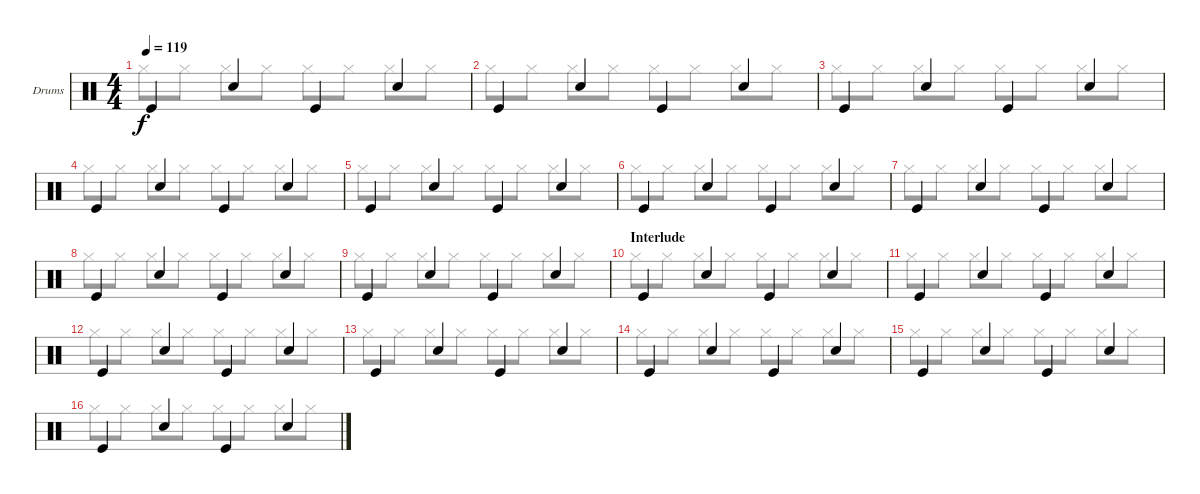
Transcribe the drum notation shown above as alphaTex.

\defaultSystemsLayout 4
\bracketExtendMode groupsimilarinstruments
\firstSystemTrackNameOrientation horizontal
\otherSystemsTrackNameOrientation horizontal
\track ("Drumkit" "Drums") {instrument percussion}
\staff {score}
\articulation defaults
\voice
\ts (4 4)
\tempo 119
\clef neutral
\ks c "Kick (hit)".4{dy f} "Snare (hit) 2".4 "Kick (hit)".4 "Snare (hit) 2".4
|
"Kick (hit)".4 "Snare (hit) 2".4 "Kick (hit)".4 "Snare (hit) 2".4 |
"Kick (hit)".4 "Snare (hit) 2".4 "Kick (hit)".4 "Snare (hit) 2".4 |
"Kick (hit)".4 "Snare (hit) 2".4 "Kick (hit)".4 "Snare (hit) 2".4 |
"Kick (hit)".4 "Snare (hit) 2".4 "Kick (hit)".4 "Snare (hit) 2".4 |
"Kick (hit)".4 "Snare (hit) 2".4 "Kick (hit)".4 "Snare (hit) 2".4 |
"Kick (hit)".4 "Snare (hit) 2".4 "Kick (hit)".4 "Snare (hit) 2".4 |
"Kick (hit)".4 "Snare (hit) 2".4 "Kick (hit)".4 "Snare (hit) 2".4 |
"Kick (hit)".4 "Snare (hit) 2".4 "Kick (hit)".4 "Snare (hit) 2".4 |
\section ("" "Interlude")
\scale
0.302177 "Kick (hit)".4 "Snare (hit) 2".4 "Kick (hit)".4 "Snare (hit) 2".4 |
\scale
0.231622 "Kick (hit)".4 "Snare (hit) 2".4 "Kick (hit)".4 "Snare (hit) 2".4 |
\scale
0.23877 "Kick (hit)".4 "Snare (hit) 2".4 "Kick (hit)".4 "Snare (hit) 2".4 |
\scale
0.226766 "Kick (hit)".4 "Snare (hit) 2".4 "Kick (hit)".4 "Snare (hit) 2".4 |
"Kick (hit)".4 "Snare (hit) 2".4 "Kick (hit)".4 "Snare (hit) 2".4 |
"Kick (hit)".4 "Snare (hit) 2".4 "Kick (hit)".4 "Snare (hit) 2".4 |
"Kick (hit)".4 "Snare (hit) 2".4 "Kick (hit)".4 "Snare (hit) 2".4
\voice
\clef neutral
\ottava regular
\simile none
\ks c "Hi-Hat (closed)".8{dy f} "Hi-Hat (closed)".8 "Hi-Hat (closed)".8 "Hi-Hat (closed)".8 "Hi-Hat (closed)".8 "Hi-Hat (closed)".8 "Hi-Hat (closed)".8 "Hi-Hat (closed)".8
|
"Hi-Hat (closed)".8 "Hi-Hat (closed)".8 "Hi-Hat (closed)".8 "Hi-Hat (closed)".8 "Hi-Hat (closed)".8 "Hi-Hat (closed)".8 "Hi-Hat (closed)".8 "Hi-Hat (closed)".8 |
"Hi-Hat (closed)".8 "Hi-Hat (closed)".8 "Hi-Hat (closed)".8 "Hi-Hat (closed)".8 "Hi-Hat (closed)".8 "Hi-Hat (closed)".8 "Hi-Hat (closed)".8 "Hi-Hat (closed)".8 |
"Hi-Hat (closed)".8 "Hi-Hat (closed)".8 "Hi-Hat (closed)".8 "Hi-Hat (closed)".8 "Hi-Hat (closed)".8 "Hi-Hat (closed)".8 "Hi-Hat (closed)".8 "Hi-Hat (closed)".8 |
"Hi-Hat (closed)".8 "Hi-Hat (closed)".8 "Hi-Hat (closed)".8 "Hi-Hat (closed)".8 "Hi-Hat (closed)".8 "Hi-Hat (closed)".8 "Hi-Hat (closed)".8 "Hi-Hat (closed)".8 |
"Hi-Hat (closed)".8 "Hi-Hat (closed)".8 "Hi-Hat (closed)".8 "Hi-Hat (closed)".8 "Hi-Hat (closed)".8 "Hi-Hat (closed)".8 "Hi-Hat (closed)".8 "Hi-Hat (closed)".8 |
"Hi-Hat (closed)".8 "Hi-Hat (closed)".8 "Hi-Hat (closed)".8 "Hi-Hat (closed)".8 "Hi-Hat (closed)".8 "Hi-Hat (closed)".8 "Hi-Hat (closed)".8 "Hi-Hat (closed)".8 |
"Hi-Hat (closed)".8 "Hi-Hat (closed)".8 "Hi-Hat (closed)".8 "Hi-Hat (closed)".8 "Hi-Hat (closed)".8 "Hi-Hat (closed)".8 "Hi-Hat (closed)".8 "Hi-Hat (closed)".8 |
"Hi-Hat (closed)".8 "Hi-Hat (closed)".8 "Hi-Hat (closed)".8 "Hi-Hat (closed)".8 "Hi-Hat (closed)".8 "Hi-Hat (closed)".8 "Hi-Hat (closed)".8 "Hi-Hat (closed)".8 |
"Hi-Hat (closed)".8 "Hi-Hat (closed)".8 "Hi-Hat (closed)".8 "Hi-Hat (closed)".8 "Hi-Hat (closed)".8 "Hi-Hat (closed)".8 "Hi-Hat (closed)".8 "Hi-Hat (closed)".8 |
"Hi-Hat (closed)".8 "Hi-Hat (closed)".8 "Hi-Hat (closed)".8 "Hi-Hat (closed)".8 "Hi-Hat (closed)".8 "Hi-Hat (closed)".8 "Hi-Hat (closed)".8 "Hi-Hat (closed)".8 |
"Hi-Hat (closed)".8 "Hi-Hat (closed)".8 "Hi-Hat (closed)".8 "Hi-Hat (closed)".8 "Hi-Hat (closed)".8 "Hi-Hat (closed)".8 "Hi-Hat (closed)".8 "Hi-Hat (closed)".8 |
"Hi-Hat (closed)".8 "Hi-Hat (closed)".8 "Hi-Hat (closed)".8 "Hi-Hat (closed)".8 "Hi-Hat (closed)".8 "Hi-Hat (closed)".8 "Hi-Hat (closed)".8 "Hi-Hat (closed)".8 |
"Hi-Hat (closed)".8 "Hi-Hat (closed)".8 "Hi-Hat (closed)".8 "Hi-Hat (closed)".8 "Hi-Hat (closed)".8 "Hi-Hat (closed)".8 "Hi-Hat (closed)".8 "Hi-Hat (closed)".8 |
"Hi-Hat (closed)".8 "Hi-Hat (closed)".8 "Hi-Hat (closed)".8 "Hi-Hat (closed)".8 "Hi-Hat (closed)".8 "Hi-Hat (closed)".8 "Hi-Hat (closed)".8 "Hi-Hat (closed)".8 |
"Hi-Hat (closed)".8 "Hi-Hat (closed)".8 "Hi-Hat (closed)".8 "Hi-Hat (closed)".8 "Hi-Hat (closed)".8 "Hi-Hat (closed)".8 "Hi-Hat (closed)".8 "Hi-Hat (closed)".8
